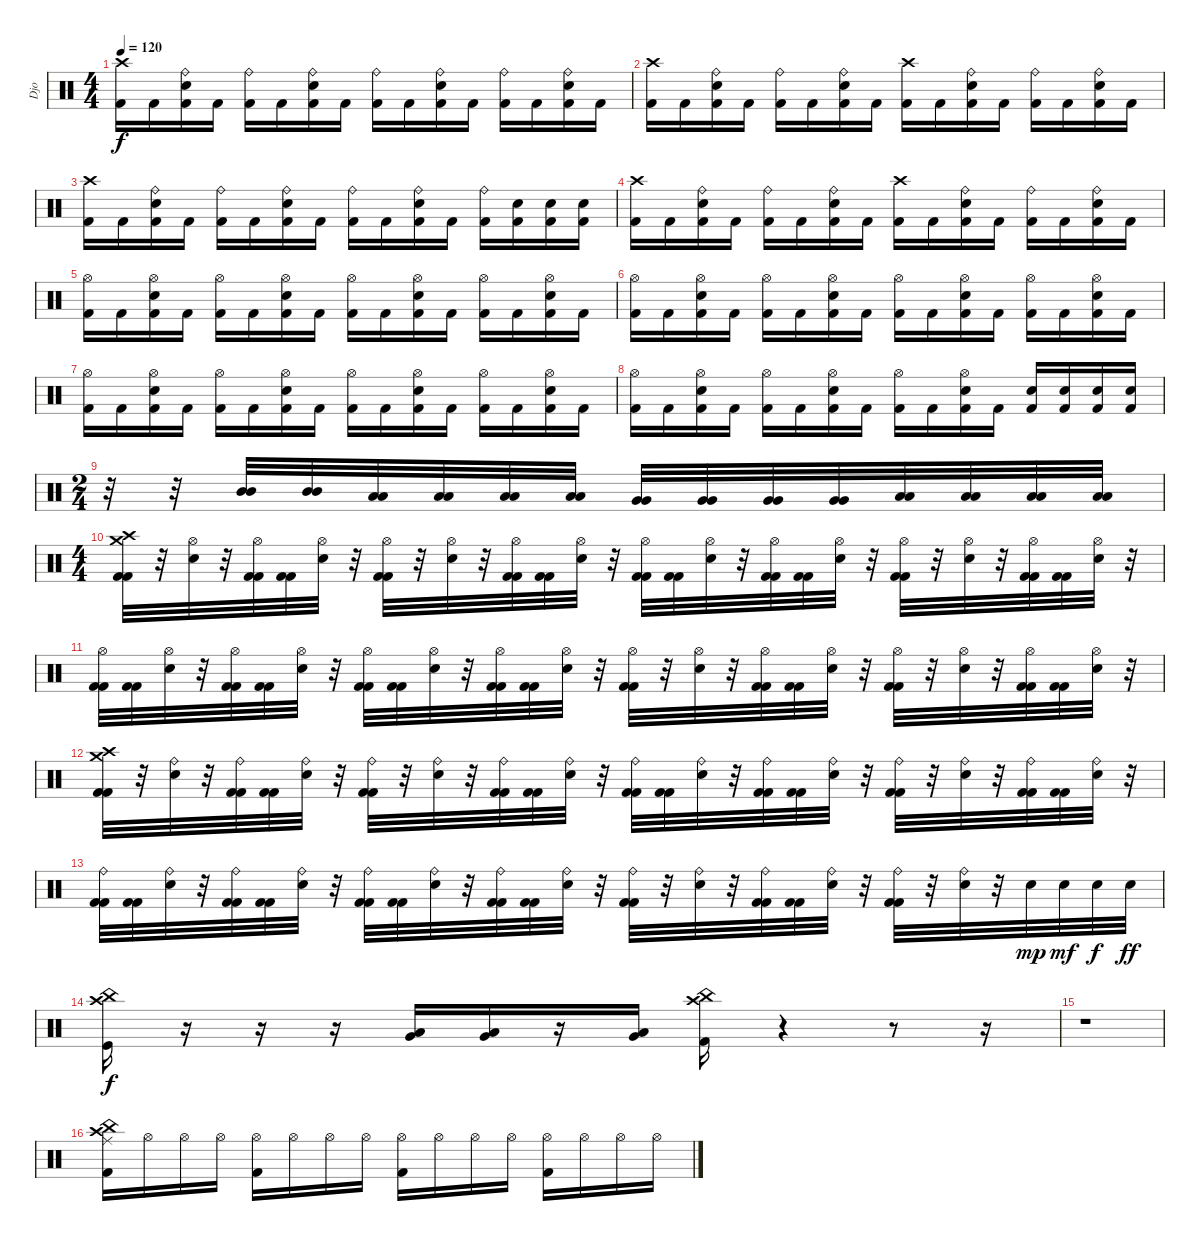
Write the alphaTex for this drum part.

\track ("Djo" "Djo") {instrument percussion}
\staff {score}
\articulation defaults
\ts (4 4)
\tempo 120
\clef neutral
\ks c
("Crash high (hit)" "Kick (hit) 2").16{dy f} "Kick (hit) 2".16 ("Ride (bell)" "Electric Snare (hit)" "Kick (hit) 2").16 "Kick (hit) 2".16 ("Ride (bell)" "Kick (hit) 2").16 "Kick (hit) 2".16 ("Ride (bell)" "Electric Snare (hit)" "Kick (hit) 2").16 "Kick (hit) 2".16 ("Ride (bell)" "Kick (hit) 2").16 "Kick (hit) 2".16 ("Ride (bell)" "Electric Snare (hit)" "Kick (hit) 2").16 "Kick (hit) 2".16 ("Ride (bell)" "Kick (hit) 2").16 "Kick (hit) 2".16 ("Ride (bell)" "Electric Snare (hit)" "Kick (hit) 2").16 "Kick (hit) 2".16 |
("Crash high (hit)" "Kick (hit) 2").16 "Kick (hit) 2".16 ("Ride (bell)" "Electric Snare (hit)" "Kick (hit) 2").16 "Kick (hit) 2".16 ("Ride (bell)" "Kick (hit) 2").16 "Kick (hit) 2".16 ("Ride (bell)" "Electric Snare (hit)" "Kick (hit) 2").16 "Kick (hit) 2".16 ("Crash high (hit)" "Kick (hit) 2").16 "Kick (hit) 2".16 ("Ride (bell)" "Electric Snare (hit)" "Kick (hit) 2").16 "Kick (hit) 2".16 ("Ride (bell)" "Kick (hit) 2").16 "Kick (hit) 2".16 ("Ride (bell)" "Electric Snare (hit)" "Kick (hit) 2").16 "Kick (hit) 2".16 |
("Crash high (hit)" "Kick (hit) 2").16 "Kick (hit) 2".16 ("Ride (bell)" "Electric Snare (hit)" "Kick (hit) 2").16 "Kick (hit) 2".16 ("Ride (bell)" "Kick (hit) 2").16 "Kick (hit) 2".16 ("Ride (bell)" "Electric Snare (hit)" "Kick (hit) 2").16 "Kick (hit) 2".16 ("Ride (bell)" "Kick (hit) 2").16 "Kick (hit) 2".16 ("Ride (bell)" "Electric Snare (hit)" "Kick (hit) 2").16 "Kick (hit) 2".16 ("Ride (bell)" "Kick (hit) 2").16 ("Electric Snare (hit)" "Kick (hit) 2").16 ("Electric Snare (hit)" "Kick (hit) 2").16 ("Electric Snare (hit)" "Kick (hit) 2").16 |
("Crash high (hit)" "Kick (hit) 2").16 "Kick (hit) 2".16 ("Ride (bell)" "Electric Snare (hit)" "Kick (hit) 2").16 "Kick (hit) 2".16 ("Ride (bell)" "Kick (hit) 2").16 "Kick (hit) 2".16 ("Ride (bell)" "Electric Snare (hit)" "Kick (hit) 2").16 "Kick (hit) 2".16 ("Crash high (hit)" "Kick (hit) 2").16 "Kick (hit) 2".16 ("Ride (bell)" "Electric Snare (hit)" "Kick (hit) 2").16 "Kick (hit) 2".16 ("Ride (bell)" "Kick (hit) 2").16 "Kick (hit) 2".16 ("Ride (bell)" "Electric Snare (hit)" "Kick (hit) 2").16 "Kick (hit) 2".16 |
("Hi-Hat (open)" "Kick (hit) 2").16 "Kick (hit) 2".16 ("Hi-Hat (open)" "Electric Snare (hit)" "Kick (hit) 2").16 "Kick (hit) 2".16 ("Hi-Hat (open)" "Kick (hit) 2").16 "Kick (hit) 2".16 ("Hi-Hat (open)" "Electric Snare (hit)" "Kick (hit) 2").16 "Kick (hit) 2".16 ("Hi-Hat (open)" "Kick (hit) 2").16 "Kick (hit) 2".16 ("Hi-Hat (open)" "Electric Snare (hit)" "Kick (hit) 2").16 "Kick (hit) 2".16 ("Hi-Hat (open)" "Kick (hit) 2").16 "Kick (hit) 2".16 ("Hi-Hat (open)" "Electric Snare (hit)" "Kick (hit) 2").16 "Kick (hit) 2".16 |
("Hi-Hat (open)" "Kick (hit) 2").16 "Kick (hit) 2".16 ("Hi-Hat (open)" "Electric Snare (hit)" "Kick (hit) 2").16 "Kick (hit) 2".16 ("Hi-Hat (open)" "Kick (hit) 2").16 "Kick (hit) 2".16 ("Hi-Hat (open)" "Electric Snare (hit)" "Kick (hit) 2").16 "Kick (hit) 2".16 ("Hi-Hat (open)" "Kick (hit) 2").16 "Kick (hit) 2".16 ("Hi-Hat (open)" "Electric Snare (hit)" "Kick (hit) 2").16 "Kick (hit) 2".16 ("Hi-Hat (open)" "Kick (hit) 2").16 "Kick (hit) 2".16 ("Hi-Hat (open)" "Electric Snare (hit)" "Kick (hit) 2").16 "Kick (hit) 2".16 |
("Hi-Hat (open)" "Kick (hit) 2").16 "Kick (hit) 2".16 ("Hi-Hat (open)" "Electric Snare (hit)" "Kick (hit) 2").16 "Kick (hit) 2".16 ("Hi-Hat (open)" "Kick (hit) 2").16 "Kick (hit) 2".16 ("Hi-Hat (open)" "Electric Snare (hit)" "Kick (hit) 2").16 "Kick (hit) 2".16 ("Hi-Hat (open)" "Kick (hit) 2").16 "Kick (hit) 2".16 ("Hi-Hat (open)" "Electric Snare (hit)" "Kick (hit) 2").16 "Kick (hit) 2".16 ("Hi-Hat (open)" "Kick (hit) 2").16 "Kick (hit) 2".16 ("Hi-Hat (open)" "Electric Snare (hit)" "Kick (hit) 2").16 "Kick (hit) 2".16 |
("Hi-Hat (open)" "Kick (hit) 2").16 "Kick (hit) 2".16 ("Hi-Hat (open)" "Electric Snare (hit)" "Kick (hit) 2").16 "Kick (hit) 2".16 ("Hi-Hat (open)" "Kick (hit) 2").16 "Kick (hit) 2".16 ("Hi-Hat (open)" "Electric Snare (hit)" "Kick (hit) 2").16 "Kick (hit) 2".16 ("Hi-Hat (open)" "Kick (hit) 2").16 "Kick (hit) 2".16 ("Hi-Hat (open)" "Electric Snare (hit)" "Kick (hit) 2").16 "Kick (hit) 2".16 ("Electric Snare (hit)" "Kick (hit) 2").16 ("Electric Snare (hit)" "Kick (hit) 2").16 ("Electric Snare (hit)" "Kick (hit) 2").16 ("Electric Snare (hit)" "Kick (hit) 2").16 |
\ts (2 4)
r.32 r.32 ("Mid Tom (hit)" "Mid Tom (hit)").32 ("Mid Tom (hit)" "Mid Tom (hit)").32 ("Low Tom (hit)" "Low Tom (hit)").32 ("Low Tom (hit)" "Low Tom (hit)").32 ("Low Tom (hit)" "Low Tom (hit)").32 ("Low Tom (hit)" "Low Tom (hit)").32 ("Very Low Tom (hit)" "Very Low Tom (hit)").32 ("Very Low Tom (hit)" "Very Low Tom (hit)").32 ("Very Low Tom (hit)" "Very Low Tom (hit)").32 ("Very Low Tom (hit)" "Very Low Tom (hit)").32 ("Low Floor Tom (hit)" "Low Floor Tom (hit)").32 ("Low Floor Tom (hit)" "Low Floor Tom (hit)").32 ("Low Floor Tom (hit)" "Low Floor Tom (hit)").32 ("Low Floor Tom (hit)" "Low Floor Tom (hit)").32 |
\ts (4 4)
("Crash high (hit)" "Crash medium (hit)" "Kick (hit) 2" "Kick (hit) 2").32 r.32 ("Hi-Hat (open)" "Snare (hit) 2").32 r.32 ("Hi-Hat (open)" "Kick (hit) 2" "Kick (hit) 2").32 ("Kick (hit) 2" "Kick (hit) 2").32 ("Hi-Hat (open)" "Snare (hit) 2").32 r.32 ("Hi-Hat (open)" "Kick (hit) 2" "Kick (hit) 2").32 r.32 ("Hi-Hat (open)" "Snare (hit) 2").32 r.32 ("Hi-Hat (open)" "Kick (hit) 2" "Kick (hit) 2").32 ("Kick (hit) 2" "Kick (hit) 2").32 ("Hi-Hat (open)" "Snare (hit) 2").32 r.32 ("Hi-Hat (open)" "Kick (hit) 2" "Kick (hit) 2").32 ("Kick (hit) 2" "Kick (hit) 2").32 ("Hi-Hat (open)" "Snare (hit) 2").32 r.32 ("Hi-Hat (open)" "Kick (hit) 2" "Kick (hit) 2").32 ("Kick (hit) 2" "Kick (hit) 2").32 ("Hi-Hat (open)" "Snare (hit) 2").32 r.32 ("Hi-Hat (open)" "Kick (hit) 2" "Kick (hit) 2").32 r.32 ("Hi-Hat (open)" "Snare (hit) 2").32 r.32 ("Hi-Hat (open)" "Kick (hit) 2" "Kick (hit) 2").32 ("Kick (hit) 2" "Kick (hit) 2").32 ("Hi-Hat (open)" "Snare (hit) 2").32 r.32 |
("Hi-Hat (open)" "Kick (hit) 2" "Kick (hit) 2").32 ("Kick (hit) 2" "Kick (hit) 2").32 ("Hi-Hat (open)" "Snare (hit) 2").32 r.32 ("Hi-Hat (open)" "Kick (hit) 2" "Kick (hit) 2").32 ("Kick (hit) 2" "Kick (hit) 2").32 ("Hi-Hat (open)" "Snare (hit) 2").32 r.32 ("Hi-Hat (open)" "Kick (hit) 2" "Kick (hit) 2").32 ("Kick (hit) 2" "Kick (hit) 2").32 ("Hi-Hat (open)" "Snare (hit) 2").32 r.32 ("Hi-Hat (open)" "Kick (hit) 2" "Kick (hit) 2").32 ("Kick (hit) 2" "Kick (hit) 2").32 ("Hi-Hat (open)" "Snare (hit) 2").32 r.32 ("Hi-Hat (open)" "Kick (hit) 2" "Kick (hit) 2").32 r.32 ("Hi-Hat (open)" "Snare (hit) 2").32 r.32 ("Hi-Hat (open)" "Kick (hit) 2" "Kick (hit) 2").32 ("Kick (hit) 2" "Kick (hit) 2").32 ("Hi-Hat (open)" "Snare (hit) 2").32 r.32 ("Hi-Hat (open)" "Kick (hit) 2" "Kick (hit) 2").32 r.32 ("Hi-Hat (open)" "Snare (hit) 2").32 r.32 ("Hi-Hat (open)" "Kick (hit) 2" "Kick (hit) 2").32 ("Kick (hit) 2" "Kick (hit) 2").32 ("Hi-Hat (open)" "Snare (hit) 2").32 r.32 |
("Crash high (hit)" "Crash medium (hit)" "Kick (hit) 2" "Kick (hit) 2").32 r.32 ("Ride (bell)" "Snare (hit) 2").32 r.32 ("Ride (bell)" "Kick (hit) 2" "Kick (hit) 2").32 ("Kick (hit) 2" "Kick (hit) 2").32 ("Ride (bell)" "Snare (hit) 2").32 r.32 ("Ride (bell)" "Kick (hit) 2" "Kick (hit) 2").32 r.32 ("Ride (bell)" "Snare (hit) 2").32 r.32 ("Ride (bell)" "Kick (hit) 2" "Kick (hit) 2").32 ("Kick (hit) 2" "Kick (hit) 2").32 ("Ride (bell)" "Snare (hit) 2").32 r.32 ("Ride (bell)" "Kick (hit) 2" "Kick (hit) 2").32 ("Kick (hit) 2" "Kick (hit) 2").32 ("Ride (bell)" "Snare (hit) 2").32 r.32 ("Ride (bell)" "Kick (hit) 2" "Kick (hit) 2").32 ("Kick (hit) 2" "Kick (hit) 2").32 ("Ride (bell)" "Snare (hit) 2").32 r.32 ("Ride (bell)" "Kick (hit) 2" "Kick (hit) 2").32 r.32 ("Ride (bell)" "Snare (hit) 2").32 r.32 ("Ride (bell)" "Kick (hit) 2" "Kick (hit) 2").32 ("Kick (hit) 2" "Kick (hit) 2").32 ("Ride (bell)" "Snare (hit) 2").32 r.32 |
("Ride (bell)" "Kick (hit) 2" "Kick (hit) 2").32 ("Kick (hit) 2" "Kick (hit) 2").32 ("Ride (bell)" "Snare (hit) 2").32 r.32 ("Ride (bell)" "Kick (hit) 2" "Kick (hit) 2").32 ("Kick (hit) 2" "Kick (hit) 2").32 ("Ride (bell)" "Snare (hit) 2").32 r.32 ("Ride (bell)" "Kick (hit) 2" "Kick (hit) 2").32 ("Kick (hit) 2" "Kick (hit) 2").32 ("Ride (bell)" "Snare (hit) 2").32 r.32 ("Ride (bell)" "Kick (hit) 2" "Kick (hit) 2").32 ("Kick (hit) 2" "Kick (hit) 2").32 ("Ride (bell)" "Snare (hit) 2").32 r.32 ("Ride (bell)" "Kick (hit) 2" "Kick (hit) 2").32 r.32 ("Ride (bell)" "Snare (hit) 2").32 r.32 ("Ride (bell)" "Kick (hit) 2" "Kick (hit) 2").32 ("Kick (hit) 2" "Kick (hit) 2").32 ("Ride (bell)" "Snare (hit) 2").32 r.32 ("Ride (bell)" "Kick (hit) 2" "Kick (hit) 2").32 r.32 ("Ride (bell)" "Snare (hit) 2").32 r.32 "Snare (hit) 2".32{dy mp} "Snare (hit) 2".32{dy mf} "Snare (hit) 2".32{dy f} "Snare (hit) 2".32{dy ff} |
("Crash high (hit)" "China (hit)" "Kick (hit)").16{dy f} r.16 r.16 r.16 ("Very Low Tom (hit)" "Low Tom (hit)").16 ("Very Low Tom (hit)" "Low Tom (hit)").16 r.16 ("Very Low Tom (hit)" "Low Tom (hit)").16 ("China (hit)" "Crash high (hit)" "Kick (hit) 2").16 r.4 r.8 r.16 |
r.1 |
("China (hit)" "Crash high (hit)" "Ride (middle)" "Kick (hit) 2").16 "Hi-Hat (open)".16 "Hi-Hat (open)".16 "Hi-Hat (open)".16 ("Hi-Hat (open)" "Kick (hit) 2").16 "Hi-Hat (open)".16 "Hi-Hat (open)".16 "Hi-Hat (open)".16 ("Hi-Hat (open)" "Kick (hit) 2").16 "Hi-Hat (open)".16 "Hi-Hat (open)".16 "Hi-Hat (open)".16 ("Hi-Hat (open)" "Kick (hit) 2").16 "Hi-Hat (open)".16 "Hi-Hat (open)".16 "Hi-Hat (open)".16
